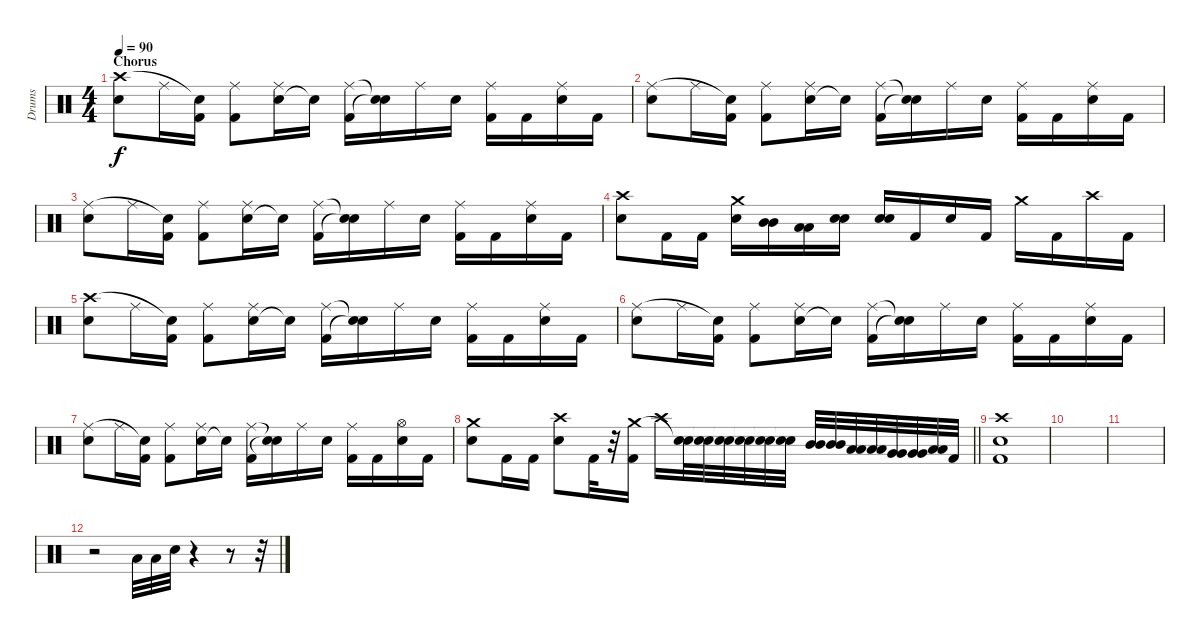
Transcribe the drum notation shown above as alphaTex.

\track ("Drums" "Drums") {instrument percussion}
\staff {score}
\articulation defaults
\ts (4 4)
\section ("" "Chorus")
\tempo 90
\clef neutral
\ks c
("Electric Snare (hit)" "Crash high (hit)").8{dy f} "Ride (middle)".16 ("Kick (hit) 2" "Snare (hit)"{t}).16 ("Kick (hit) 2" "Ride (middle)").8 ("Electric Snare (hit)" "Ride (middle)").16 "Snare (hit)"{t}.16 ("Kick (hit) 2" "Ride (middle)").16 ("Snare (hit)"{t} "Snare (hit)"{t}).16 "Ride (middle)".16 "Electric Snare (hit)".16 ("Kick (hit) 2" "Ride (middle)").16 "Kick (hit) 2".16 ("Electric Snare (hit)" "Ride (middle)").16 "Kick (hit) 2".16 |
("Electric Snare (hit)" "Ride (middle)").8 "Ride (middle)".16 ("Kick (hit) 2" "Snare (hit)"{t}).16 ("Kick (hit) 2" "Ride (middle)").8 ("Electric Snare (hit)" "Ride (middle)").16 "Snare (hit)"{t}.16 ("Kick (hit) 2" "Ride (middle)").16 ("Snare (hit)"{t} "Snare (hit)"{t}).16 "Ride (middle)".16 "Electric Snare (hit)".16 ("Kick (hit) 2" "Ride (middle)").16 "Kick (hit) 2".16 ("Electric Snare (hit)" "Ride (middle)").16 "Kick (hit) 2".16 |
("Electric Snare (hit)" "Ride (middle)").8 "Ride (middle)".16 ("Kick (hit) 2" "Snare (hit)"{t}).16 ("Kick (hit) 2" "Ride (middle)").8 ("Electric Snare (hit)" "Ride (middle)").16 "Snare (hit)"{t}.16 ("Kick (hit) 2" "Ride (middle)").16 ("Snare (hit)"{t} "Snare (hit)"{t}).16 "Ride (middle)".16 "Electric Snare (hit)".16 ("Kick (hit) 2" "Ride (middle)").16 "Kick (hit) 2".16 ("Electric Snare (hit)" "Ride (middle)").16 "Kick (hit) 2".16 |
("Electric Snare (hit)" "Crash high (hit)").8 "Kick (hit) 2".16 "Kick (hit) 2".16 ("Electric Snare (hit)" "Crash medium (hit)").16 ("Mid Tom (hit)" "Mid Tom (hit)").16 ("Low Tom (hit)" "Low Tom (hit)").16 ("Electric Snare (hit)" "Electric Snare (hit)").16 ("Snare (hit) 2" "Snare (hit) 2").16 "Kick (hit) 2".16 "Electric Snare (hit)".16 "Kick (hit) 2".16 "Crash medium (hit)".16 "Kick (hit) 2".16 "Crash high (hit)".16 "Kick (hit) 2".16 |
("Electric Snare (hit)" "Crash high (hit)").8 "Ride (middle)".16 ("Kick (hit) 2" "Snare (hit)"{t}).16 ("Kick (hit) 2" "Ride (middle)").8 ("Electric Snare (hit)" "Ride (middle)").16 "Snare (hit)"{t}.16 ("Kick (hit) 2" "Ride (middle)").16 ("Snare (hit)"{t} "Snare (hit)"{t}).16 "Ride (middle)".16 "Electric Snare (hit)".16 ("Kick (hit) 2" "Ride (middle)").16 "Kick (hit) 2".16 ("Electric Snare (hit)" "Ride (middle)").16 "Kick (hit) 2".16 |
("Electric Snare (hit)" "Ride (middle)").8 "Ride (middle)".16 ("Kick (hit) 2" "Snare (hit)"{t}).16 ("Kick (hit) 2" "Ride (middle)").8 ("Electric Snare (hit)" "Ride (middle)").16 "Snare (hit)"{t}.16 ("Kick (hit) 2" "Ride (middle)").16 ("Snare (hit)"{t} "Snare (hit)"{t}).16 "Ride (middle)".16 "Electric Snare (hit)".16 ("Kick (hit) 2" "Ride (middle)").16 "Kick (hit) 2".16 ("Electric Snare (hit)" "Ride (middle)").16 "Kick (hit) 2".16 |
("Electric Snare (hit)" "Ride (middle)").8 "Ride (middle)".16 ("Kick (hit) 2" "Snare (hit)"{t}).16 ("Kick (hit) 2" "Ride (middle)").8 ("Electric Snare (hit)" "Ride (middle)").16 "Snare (hit)"{t}.16 ("Kick (hit) 2" "Ride (middle)").16 ("Snare (hit)"{t} "Snare (hit)"{t}).16 "Ride (middle)".16 "Electric Snare (hit)".16 ("Kick (hit) 2" "Ride (middle)").16 "Kick (hit) 2".16 ("Electric Snare (hit)" "Hi-Hat (open)").16 "Kick (hit) 2".16 |
\barLineRight lightlight
("Electric Snare (hit)" "Crash medium (hit)").8 "Kick (hit) 2".16 "Kick (hit) 2".16 ("Electric Snare (hit)" "Crash high (hit)").8 "Kick (hit) 2".32 r.32 ("Kick (hit) 2" "Crash medium (hit)").16 "Crash high (hit)".16 ("Electric Snare (hit)" "Snare (hit)"{t}).32 ("Electric Snare (hit)" "Snare (hit)"{t}).32 ("Electric Snare (hit)" "Snare (hit)"{t}).32 ("Electric Snare (hit)" "Snare (hit)"{t}).32 ("Electric Snare (hit)" "Snare (hit)"{t}).32 ("Electric Snare (hit)" "Snare (hit)"{t}).32 ("Mid Tom (hit)" "Mid Tom (hit)").32 ("Mid Tom (hit)" "Mid Tom (hit)").32 ("Low Tom (hit)" "Low Tom (hit)").32 ("Low Tom (hit)" "Low Tom (hit)").32 ("Very Low Tom (hit)" "Very Low Tom (hit)").32 ("Very Low Tom (hit)" "Very Low Tom (hit)").32 ("Low Floor Tom (hit)" "Low Floor Tom (hit)").32 "Kick (hit) 2".32 |
("Kick (hit) 2" "Electric Snare (hit)" "Crash high (hit)").1 |
|
|
r.2 "Low Floor Tom (hit)".32 "Low Tom (hit)".32 "Electric Snare (hit)".32 r.4 r.8 r.32
